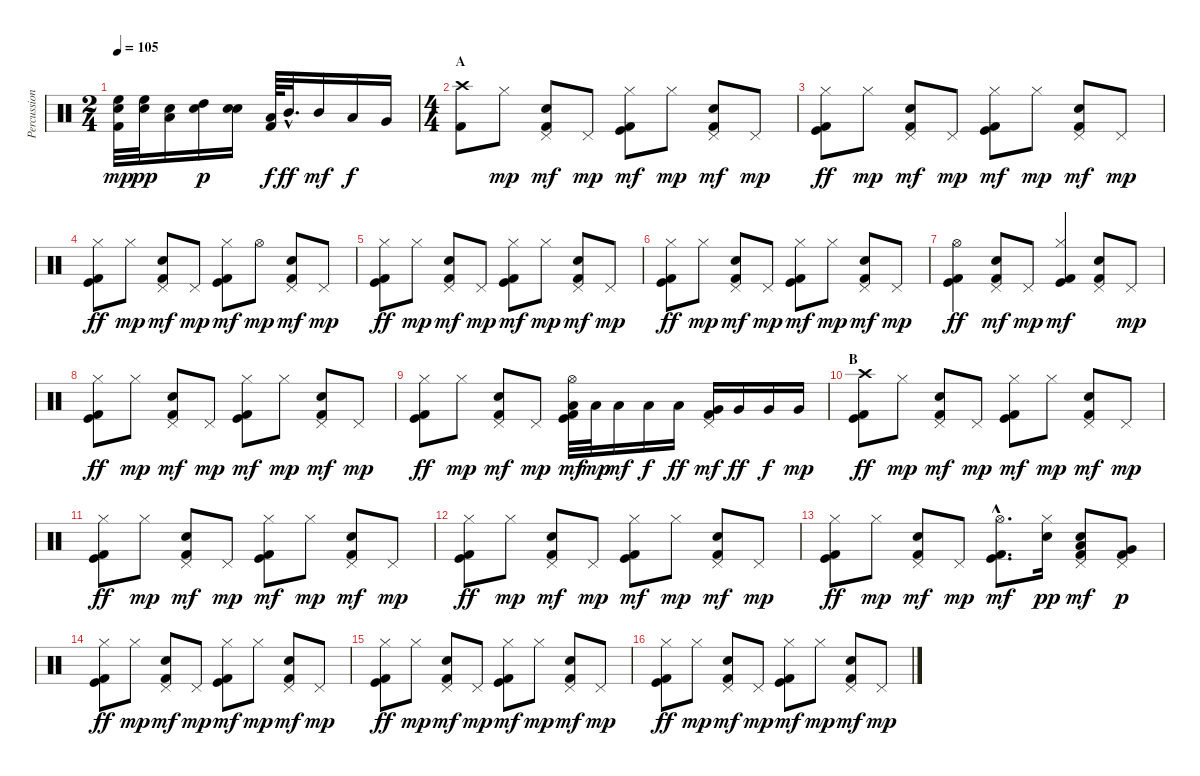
\track ("Percussion" "Percussion") {instrument percussion}
\staff {score}
\articulation defaults
\ts (2 4)
\tempo 105
\clef neutral
\ks c
("Electric Snare (hit)" "High Floor Tom (hit)" "Kick (hit) 2").32{dy mp} ("Electric Snare (hit)" "High Floor Tom (hit)").32{dy pp} ("Electric Snare (hit)" "Low Tom (hit)").16 ("Electric Snare (hit)" "High Tom (hit)").16{dy p} ("Electric Snare (hit)" "Snare (hit) 2").16 ("Low Tom (hit)" "Kick (hit) 2").64{dy f} "Mid Tom (hit)"{hac}.32{d dy ff} "Mid Tom (hit)".16{dy mf} "Low Tom (hit)".16{dy f} "Very Low Tom (hit)".16 |
\ts (4 4)
\section ("" "A")
("Crash high (hit)" "Kick (hit) 2").8 "Hi-Hat (closed)".8{dy mp} ("Electric Snare (hit)" "Pedal Hi-Hat (hit)" "Kick (hit) 2").8{dy mf} "Pedal Hi-Hat (hit)".8{dy mp} ("Hi-Hat (closed)" "Kick (hit)" "Kick (hit) 2").8{dy mf} "Hi-Hat (closed)".8{dy mp} ("Electric Snare (hit)" "Pedal Hi-Hat (hit)" "Kick (hit) 2").8{dy mf} "Pedal Hi-Hat (hit)".8{dy mp} |
("Hi-Hat (closed)" "Kick (hit)" "Kick (hit) 2").8{dy ff} "Hi-Hat (closed)".8{dy mp} ("Electric Snare (hit)" "Pedal Hi-Hat (hit)" "Kick (hit) 2").8{dy mf} "Pedal Hi-Hat (hit)".8{dy mp} ("Hi-Hat (closed)" "Kick (hit)" "Kick (hit) 2").8{dy mf} "Hi-Hat (closed)".8{dy mp} ("Electric Snare (hit)" "Pedal Hi-Hat (hit)" "Kick (hit) 2").8{dy mf} "Pedal Hi-Hat (hit)".8{dy mp} |
("Hi-Hat (closed)" "Kick (hit)" "Kick (hit) 2").8{dy ff} "Hi-Hat (closed)".8{dy mp} ("Electric Snare (hit)" "Pedal Hi-Hat (hit)" "Kick (hit) 2").8{dy mf} "Pedal Hi-Hat (hit)".8{dy mp} ("Hi-Hat (closed)" "Kick (hit)" "Kick (hit) 2").8{dy mf} "Hi-Hat (open)".8{dy mp} ("Electric Snare (hit)" "Pedal Hi-Hat (hit)" "Kick (hit) 2").8{dy mf} "Pedal Hi-Hat (hit)".8{dy mp} |
("Hi-Hat (closed)" "Kick (hit)" "Kick (hit) 2").8{dy ff} "Hi-Hat (closed)".8{dy mp} ("Electric Snare (hit)" "Pedal Hi-Hat (hit)" "Kick (hit) 2").8{dy mf} "Pedal Hi-Hat (hit)".8{dy mp} ("Hi-Hat (closed)" "Kick (hit)" "Kick (hit) 2").8{dy mf} "Hi-Hat (closed)".8{dy mp} ("Electric Snare (hit)" "Pedal Hi-Hat (hit)" "Kick (hit) 2").8{dy mf} "Pedal Hi-Hat (hit)".8{dy mp} |
("Hi-Hat (closed)" "Kick (hit)" "Kick (hit) 2").8{dy ff} "Hi-Hat (closed)".8{dy mp} ("Electric Snare (hit)" "Pedal Hi-Hat (hit)" "Kick (hit) 2").8{dy mf} "Pedal Hi-Hat (hit)".8{dy mp} ("Hi-Hat (closed)" "Kick (hit)" "Kick (hit) 2").8{dy mf} "Hi-Hat (closed)".8{dy mp} ("Electric Snare (hit)" "Pedal Hi-Hat (hit)" "Kick (hit) 2").8{dy mf} "Pedal Hi-Hat (hit)".8{dy mp} |
("Hi-Hat (open)" "Kick (hit)" "Kick (hit) 2").4{dy ff} ("Electric Snare (hit)" "Pedal Hi-Hat (hit)" "Kick (hit) 2").8{dy mf} "Pedal Hi-Hat (hit)".8{dy mp} ("Hi-Hat (closed)" "Kick (hit)" "Kick (hit) 2").4{dy mf} ("Electric Snare (hit)" "Pedal Hi-Hat (hit)" "Kick (hit) 2").8 "Pedal Hi-Hat (hit)".8{dy mp} |
("Hi-Hat (closed)" "Kick (hit)" "Kick (hit) 2").8{dy ff} "Hi-Hat (closed)".8{dy mp} ("Electric Snare (hit)" "Pedal Hi-Hat (hit)" "Kick (hit) 2").8{dy mf} "Pedal Hi-Hat (hit)".8{dy mp} ("Hi-Hat (closed)" "Kick (hit)" "Kick (hit) 2").8{dy mf} "Hi-Hat (closed)".8{dy mp} ("Electric Snare (hit)" "Pedal Hi-Hat (hit)" "Kick (hit) 2").8{dy mf} "Pedal Hi-Hat (hit)".8{dy mp} |
("Hi-Hat (closed)" "Kick (hit)" "Kick (hit) 2").8{dy ff} "Hi-Hat (closed)".8{dy mp} ("Electric Snare (hit)" "Pedal Hi-Hat (hit)" "Kick (hit) 2").8{dy mf} "Pedal Hi-Hat (hit)".8{dy mp} ("Low Tom (hit)" "Hi-Hat (open)" "Kick (hit)" "Kick (hit) 2").32{dy mf} "Low Tom (hit)".32{dy mp} "Low Tom (hit)".16{dy mf} "Low Tom (hit)".16{dy f} "Low Tom (hit)".16{dy ff} ("Very Low Tom (hit)" "Pedal Hi-Hat (hit)" "Kick (hit) 2").16{dy mf} "Very Low Tom (hit)".16{dy ff} "Very Low Tom (hit)".16{dy f} "Very Low Tom (hit)".16{dy mp} |
\section ("" "B")
("Crash high (hit)" "Kick (hit)" "Kick (hit) 2").8{dy ff} "Hi-Hat (closed)".8{dy mp} ("Electric Snare (hit)" "Pedal Hi-Hat (hit)" "Kick (hit) 2").8{dy mf} "Pedal Hi-Hat (hit)".8{dy mp} ("Hi-Hat (closed)" "Kick (hit)" "Kick (hit) 2").8{dy mf} "Hi-Hat (closed)".8{dy mp} ("Electric Snare (hit)" "Pedal Hi-Hat (hit)" "Kick (hit) 2").8{dy mf} "Pedal Hi-Hat (hit)".8{dy mp} |
("Hi-Hat (closed)" "Kick (hit)" "Kick (hit) 2").8{dy ff} "Hi-Hat (closed)".8{dy mp} ("Electric Snare (hit)" "Pedal Hi-Hat (hit)" "Kick (hit) 2").8{dy mf} "Pedal Hi-Hat (hit)".8{dy mp} ("Hi-Hat (closed)" "Kick (hit)" "Kick (hit) 2").8{dy mf} "Hi-Hat (closed)".8{dy mp} ("Electric Snare (hit)" "Pedal Hi-Hat (hit)" "Kick (hit) 2").8{dy mf} "Pedal Hi-Hat (hit)".8{dy mp} |
("Hi-Hat (closed)" "Kick (hit)" "Kick (hit) 2").8{dy ff} "Hi-Hat (closed)".8{dy mp} ("Electric Snare (hit)" "Pedal Hi-Hat (hit)" "Kick (hit) 2").8{dy mf} "Pedal Hi-Hat (hit)".8{dy mp} ("Hi-Hat (closed)" "Kick (hit)" "Kick (hit) 2").8{dy mf} "Hi-Hat (closed)".8{dy mp} ("Electric Snare (hit)" "Pedal Hi-Hat (hit)" "Kick (hit) 2").8{dy mf} "Pedal Hi-Hat (hit)".8{dy mp} |
("Hi-Hat (closed)" "Kick (hit)" "Kick (hit) 2").8{dy ff} "Hi-Hat (closed)".8{dy mp} ("Electric Snare (hit)" "Pedal Hi-Hat (hit)" "Kick (hit) 2").8{dy mf} "Pedal Hi-Hat (hit)".8{dy mp} ("Hi-Hat (open)"{hac} "Kick (hit)"{hac} "Kick (hit) 2"{hac}).8{d dy mf} ("Electric Snare (hit)" "Hi-Hat (closed)").16{dy pp} ("Electric Snare (hit)" "Pedal Hi-Hat (hit)" "Low Tom (hit)" "Kick (hit) 2").8{dy mf} ("Pedal Hi-Hat (hit)" "Very Low Tom (hit)" "Kick (hit) 2").8{dy p} |
("Hi-Hat (closed)" "Kick (hit)" "Kick (hit) 2").8{dy ff} "Hi-Hat (closed)".8{dy mp} ("Electric Snare (hit)" "Pedal Hi-Hat (hit)" "Kick (hit) 2").8{dy mf} "Pedal Hi-Hat (hit)".8{dy mp} ("Hi-Hat (closed)" "Kick (hit)" "Kick (hit) 2").8{dy mf} "Hi-Hat (closed)".8{dy mp} ("Electric Snare (hit)" "Pedal Hi-Hat (hit)" "Kick (hit) 2").8{dy mf} "Pedal Hi-Hat (hit)".8{dy mp} |
("Hi-Hat (closed)" "Kick (hit)" "Kick (hit) 2").8{dy ff} "Hi-Hat (closed)".8{dy mp} ("Electric Snare (hit)" "Pedal Hi-Hat (hit)" "Kick (hit) 2").8{dy mf} "Pedal Hi-Hat (hit)".8{dy mp} ("Hi-Hat (closed)" "Kick (hit)" "Kick (hit) 2").8{dy mf} "Hi-Hat (closed)".8{dy mp} ("Electric Snare (hit)" "Pedal Hi-Hat (hit)" "Kick (hit) 2").8{dy mf} "Pedal Hi-Hat (hit)".8{dy mp} |
("Hi-Hat (closed)" "Kick (hit)" "Kick (hit) 2").8{dy ff} "Hi-Hat (closed)".8{dy mp} ("Electric Snare (hit)" "Pedal Hi-Hat (hit)" "Kick (hit) 2").8{dy mf} "Pedal Hi-Hat (hit)".8{dy mp} ("Hi-Hat (closed)" "Kick (hit)" "Kick (hit) 2").8{dy mf} "Hi-Hat (closed)".8{dy mp} ("Electric Snare (hit)" "Pedal Hi-Hat (hit)" "Kick (hit) 2").8{dy mf} "Pedal Hi-Hat (hit)".8{dy mp}
